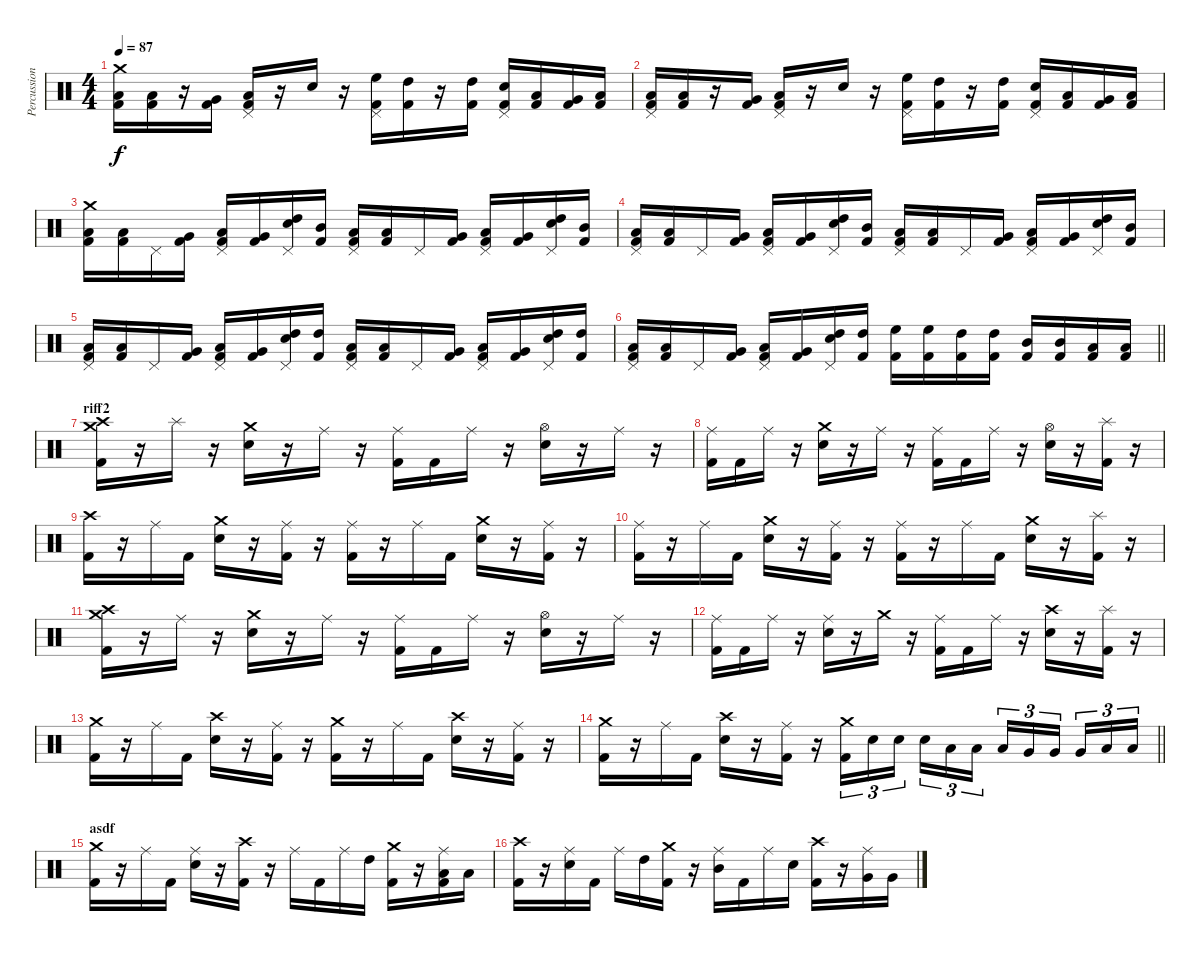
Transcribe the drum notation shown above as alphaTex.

\track ("Percussion" "Percussion") {instrument percussion}
\staff {score}
\articulation defaults
\ts (4 4)
\tempo 87
\clef neutral
\ks c
("Crash medium (hit)" "Low Floor Tom (hit)" "Kick (hit) 2").16{dy f} ("Low Floor Tom (hit)" "Kick (hit) 2").16 r.16 ("Very Low Tom (hit)" "Kick (hit) 2").16 ("Pedal Hi-Hat (hit)" "Low Tom (hit)" "Kick (hit) 2").16 r.16 "Electric Snare (hit)".16 r.16 ("Pedal Hi-Hat (hit)" "High Floor Tom (hit)" "Kick (hit) 2").16 ("High Tom (hit)" "Kick (hit) 2").16 r.16 ("High Tom (hit)" "Kick (hit) 2").16 ("Pedal Hi-Hat (hit)" "Electric Snare (hit)" "Kick (hit) 2").16 ("Low Tom (hit)" "Kick (hit) 2").16 ("Very Low Tom (hit)" "Kick (hit) 2").16 ("Low Floor Tom (hit)" "Kick (hit) 2").16 |
("Pedal Hi-Hat (hit)" "Low Floor Tom (hit)" "Kick (hit) 2").16 ("Low Floor Tom (hit)" "Kick (hit) 2").16 r.16 ("Very Low Tom (hit)" "Kick (hit) 2").16 ("Pedal Hi-Hat (hit)" "Low Tom (hit)" "Kick (hit) 2").16 r.16 "Electric Snare (hit)".16 r.16 ("Pedal Hi-Hat (hit)" "High Floor Tom (hit)" "Kick (hit) 2").16 ("High Tom (hit)" "Kick (hit) 2").16 r.16 ("High Tom (hit)" "Kick (hit) 2").16 ("Pedal Hi-Hat (hit)" "Electric Snare (hit)" "Kick (hit) 2").16 ("Low Tom (hit)" "Kick (hit) 2").16 ("Very Low Tom (hit)" "Kick (hit) 2").16 ("Low Floor Tom (hit)" "Kick (hit) 2").16 |
("Crash medium (hit)" "Low Floor Tom (hit)" "Kick (hit) 2").16 ("Low Tom (hit)" "Kick (hit) 2").16 "Pedal Hi-Hat (hit)".16 ("Very Low Tom (hit)" "Kick (hit) 2").16 ("Pedal Hi-Hat (hit)" "Low Tom (hit)" "Kick (hit) 2").16 ("Very Low Tom (hit)" "Kick (hit) 2").16 ("Pedal Hi-Hat (hit)" "High Tom (hit)" "Electric Snare (hit)").16 ("Mid Tom (hit)" "Kick (hit) 2").16 ("Pedal Hi-Hat (hit)" "Low Floor Tom (hit)" "Kick (hit) 2").16 ("Low Tom (hit)" "Kick (hit) 2").16 "Pedal Hi-Hat (hit)".16 ("Very Low Tom (hit)" "Kick (hit) 2").16 ("Pedal Hi-Hat (hit)" "Low Tom (hit)" "Kick (hit) 2").16 ("Very Low Tom (hit)" "Kick (hit) 2").16 ("Pedal Hi-Hat (hit)" "High Tom (hit)" "Electric Snare (hit)").16 ("Mid Tom (hit)" "Kick (hit) 2").16 |
("Pedal Hi-Hat (hit)" "Low Floor Tom (hit)" "Kick (hit) 2").16 ("Low Tom (hit)" "Kick (hit) 2").16 "Pedal Hi-Hat (hit)".16 ("Very Low Tom (hit)" "Kick (hit) 2").16 ("Pedal Hi-Hat (hit)" "Low Tom (hit)" "Kick (hit) 2").16 ("Very Low Tom (hit)" "Kick (hit) 2").16 ("Pedal Hi-Hat (hit)" "High Tom (hit)" "Electric Snare (hit)").16 ("Mid Tom (hit)" "Kick (hit) 2").16 ("Pedal Hi-Hat (hit)" "Low Floor Tom (hit)" "Kick (hit) 2").16 ("Low Tom (hit)" "Kick (hit) 2").16 "Pedal Hi-Hat (hit)".16 ("Very Low Tom (hit)" "Kick (hit) 2").16 ("Pedal Hi-Hat (hit)" "Low Tom (hit)" "Kick (hit) 2").16 ("Very Low Tom (hit)" "Kick (hit) 2").16 ("Pedal Hi-Hat (hit)" "High Tom (hit)" "Electric Snare (hit)").16 ("Mid Tom (hit)" "Kick (hit) 2").16 |
("Pedal Hi-Hat (hit)" "Low Floor Tom (hit)" "Kick (hit) 2").16 ("Low Tom (hit)" "Kick (hit) 2").16 "Pedal Hi-Hat (hit)".16 ("Very Low Tom (hit)" "Kick (hit) 2").16 ("Pedal Hi-Hat (hit)" "Low Tom (hit)" "Kick (hit) 2").16 ("Very Low Tom (hit)" "Kick (hit) 2").16 ("Pedal Hi-Hat (hit)" "High Tom (hit)" "Electric Snare (hit)").16 ("High Tom (hit)" "Kick (hit) 2").16 ("Pedal Hi-Hat (hit)" "Low Floor Tom (hit)" "Kick (hit) 2").16 ("Low Tom (hit)" "Kick (hit) 2").16 "Pedal Hi-Hat (hit)".16 ("Very Low Tom (hit)" "Kick (hit) 2").16 ("Pedal Hi-Hat (hit)" "Low Tom (hit)" "Kick (hit) 2").16 ("Very Low Tom (hit)" "Kick (hit) 2").16 ("Pedal Hi-Hat (hit)" "High Tom (hit)" "Electric Snare (hit)").16 ("High Tom (hit)" "Kick (hit) 2").16 |
\barLineRight lightlight
("Pedal Hi-Hat (hit)" "Low Floor Tom (hit)" "Kick (hit) 2").16 ("Low Tom (hit)" "Kick (hit) 2").16 "Pedal Hi-Hat (hit)".16 ("Very Low Tom (hit)" "Kick (hit) 2").16 ("Pedal Hi-Hat (hit)" "Low Tom (hit)" "Kick (hit) 2").16 ("Very Low Tom (hit)" "Kick (hit) 2").16 ("Pedal Hi-Hat (hit)" "High Tom (hit)" "Electric Snare (hit)").16 ("High Tom (hit)" "Kick (hit) 2").16 ("High Floor Tom (hit)" "Kick (hit) 2").16 ("High Floor Tom (hit)" "Kick (hit) 2").16 ("High Tom (hit)" "Kick (hit) 2").16 ("High Tom (hit)" "Kick (hit) 2").16 ("Mid Tom (hit)" "Kick (hit) 2").16 ("Mid Tom (hit)" "Kick (hit) 2").16 ("Low Tom (hit)" "Kick (hit) 2").16 ("Low Tom (hit)" "Kick (hit) 2").16 |
\section ("" "riff2")
("Crash medium (hit)" "Crash high (hit)" "Kick (hit) 2").16 r.16 "Splash (hit)".16 r.16 ("Crash medium (hit)" "Electric Snare (hit)").16 r.16 "Ride (middle)".16 r.16 ("Ride (middle)" "Kick (hit) 2").16 "Kick (hit) 2".16 "Ride (middle)".16 r.16 ("Hi-Hat (open)" "Electric Snare (hit)").16 r.16 "Ride (middle)".16 r.16 |
("Ride (middle)" "Kick (hit) 2").16 "Kick (hit) 2".16 "Ride (middle)".16 r.16 ("Crash medium (hit)" "Electric Snare (hit)").16 r.16 "Ride (middle)".16 r.16 ("Ride (middle)" "Kick (hit) 2").16 "Kick (hit) 2".16 "Ride (middle)".16 r.16 ("Hi-Hat (open)" "Electric Snare (hit)").16 r.16 ("Splash (hit)" "Kick (hit) 2").16 r.16 |
("Crash high (hit)" "Kick (hit) 2").16 r.16 "Ride (middle)".16 "Kick (hit) 2".16 ("Crash medium (hit)" "Electric Snare (hit)").16 r.16 ("Ride (middle)" "Kick (hit) 2").16 r.16 ("Ride (middle)" "Kick (hit) 2").16 r.16 "Ride (middle)".16 "Kick (hit) 2".16 ("Crash medium (hit)" "Electric Snare (hit)").16 r.16 ("Ride (middle)" "Kick (hit) 2").16 r.16 |
("Ride (middle)" "Kick (hit) 2").16 r.16 "Ride (middle)".16 "Kick (hit) 2".16 ("Crash medium (hit)" "Electric Snare (hit)").16 r.16 ("Ride (middle)" "Kick (hit) 2").16 r.16 ("Ride (middle)" "Kick (hit) 2").16 r.16 "Ride (middle)".16 "Kick (hit) 2".16 ("Crash medium (hit)" "Electric Snare (hit)").16 r.16 ("Splash (hit)" "Kick (hit) 2").16 r.16 |
("Crash high (hit)" "Crash medium (hit)" "Kick (hit) 2").16 r.16 "Ride (middle)".16 r.16 ("Crash medium (hit)" "Electric Snare (hit)").16 r.16 "Ride (middle)".16 r.16 ("Ride (middle)" "Kick (hit) 2").16 "Kick (hit) 2".16 "Ride (middle)".16 r.16 ("Hi-Hat (open)" "Electric Snare (hit)").16 r.16 "Ride (middle)".16 r.16 |
("Ride (middle)" "Kick (hit) 2").16 "Kick (hit) 2".16 "Ride (middle)".16 r.16 ("Ride (middle)" "Electric Snare (hit)").16 r.16 "Crash medium (hit)".16 r.16 ("Ride (middle)" "Kick (hit) 2").16 "Kick (hit) 2".16 "Ride (middle)".16 r.16 ("Crash high (hit)" "Electric Snare (hit)").16 r.16 ("Splash (hit)" "Kick (hit) 2").16 r.16 |
("Crash medium (hit)" "Kick (hit) 2").16 r.16 "Ride (middle)".16 "Kick (hit) 2".16 ("Crash high (hit)" "Electric Snare (hit)").16 r.16 ("Ride (middle)" "Kick (hit) 2").16 r.16 ("Crash medium (hit)" "Kick (hit) 2").16 r.16 "Ride (middle)".16 "Kick (hit) 2".16 ("Crash high (hit)" "Electric Snare (hit)").16 r.16 ("Ride (middle)" "Kick (hit) 2").16 r.16 |
\barLineRight lightlight
("Crash medium (hit)" "Kick (hit) 2").16 r.16 "Ride (middle)".16 "Kick (hit) 2".16 ("Crash high (hit)" "Electric Snare (hit)").16 r.16 ("Ride (middle)" "Kick (hit) 2").16 r.16 ("Crash medium (hit)" "Kick (hit) 2").16{tu (3 2)} "Electric Snare (hit)".16{tu (3 2)} "Electric Snare (hit)".16{tu (3 2) beam splitsecondary} "Electric Snare (hit)".16{tu (3 2)} "Low Tom (hit)".16{tu (3 2)} "Low Tom (hit)".16{tu (3 2)} "Low Tom (hit)".16{tu (3 2)} "Very Low Tom (hit)".16{tu (3 2)} "Very Low Tom (hit)".16{tu (3 2) beam splitsecondary} "Very Low Tom (hit)".16{tu (3 2)} "Low Floor Tom (hit)".16{tu (3 2)} "Low Floor Tom (hit)".16{tu (3 2)} |
\section ("" "asdf")
("Crash medium (hit)" "Kick (hit) 2").16 r.16 "Ride (middle)".16 "Kick (hit) 2".16 ("Ride (middle)" "Electric Snare (hit)").16 r.16 ("Crash high (hit)" "Kick (hit) 2").16 r.16 "Ride (middle)".16 "Kick (hit) 2".16 "Ride (middle)".16 "High Tom (hit)".16 ("Crash medium (hit)" "Kick (hit) 2").16 r.16 ("Ride (middle)" "Low Tom (hit)" "Kick (hit) 2").16 "Low Tom (hit)".16 |
("Crash high (hit)" "Kick (hit) 2").16 r.16 ("Ride (middle)" "Electric Snare (hit)").16 "Kick (hit) 2".16 "Ride (middle)".16 "High Tom (hit)".16 ("Crash medium (hit)" "Kick (hit) 2").16 r.16 ("Ride (middle)" "Mid Tom (hit)").16 "Kick (hit) 2".16 "Ride (middle)".16 "Electric Snare (hit)".16 ("Crash high (hit)" "Kick (hit) 2").16 r.16 ("Ride (middle)" "Very Low Tom (hit)").16 "Very Low Tom (hit)".16
